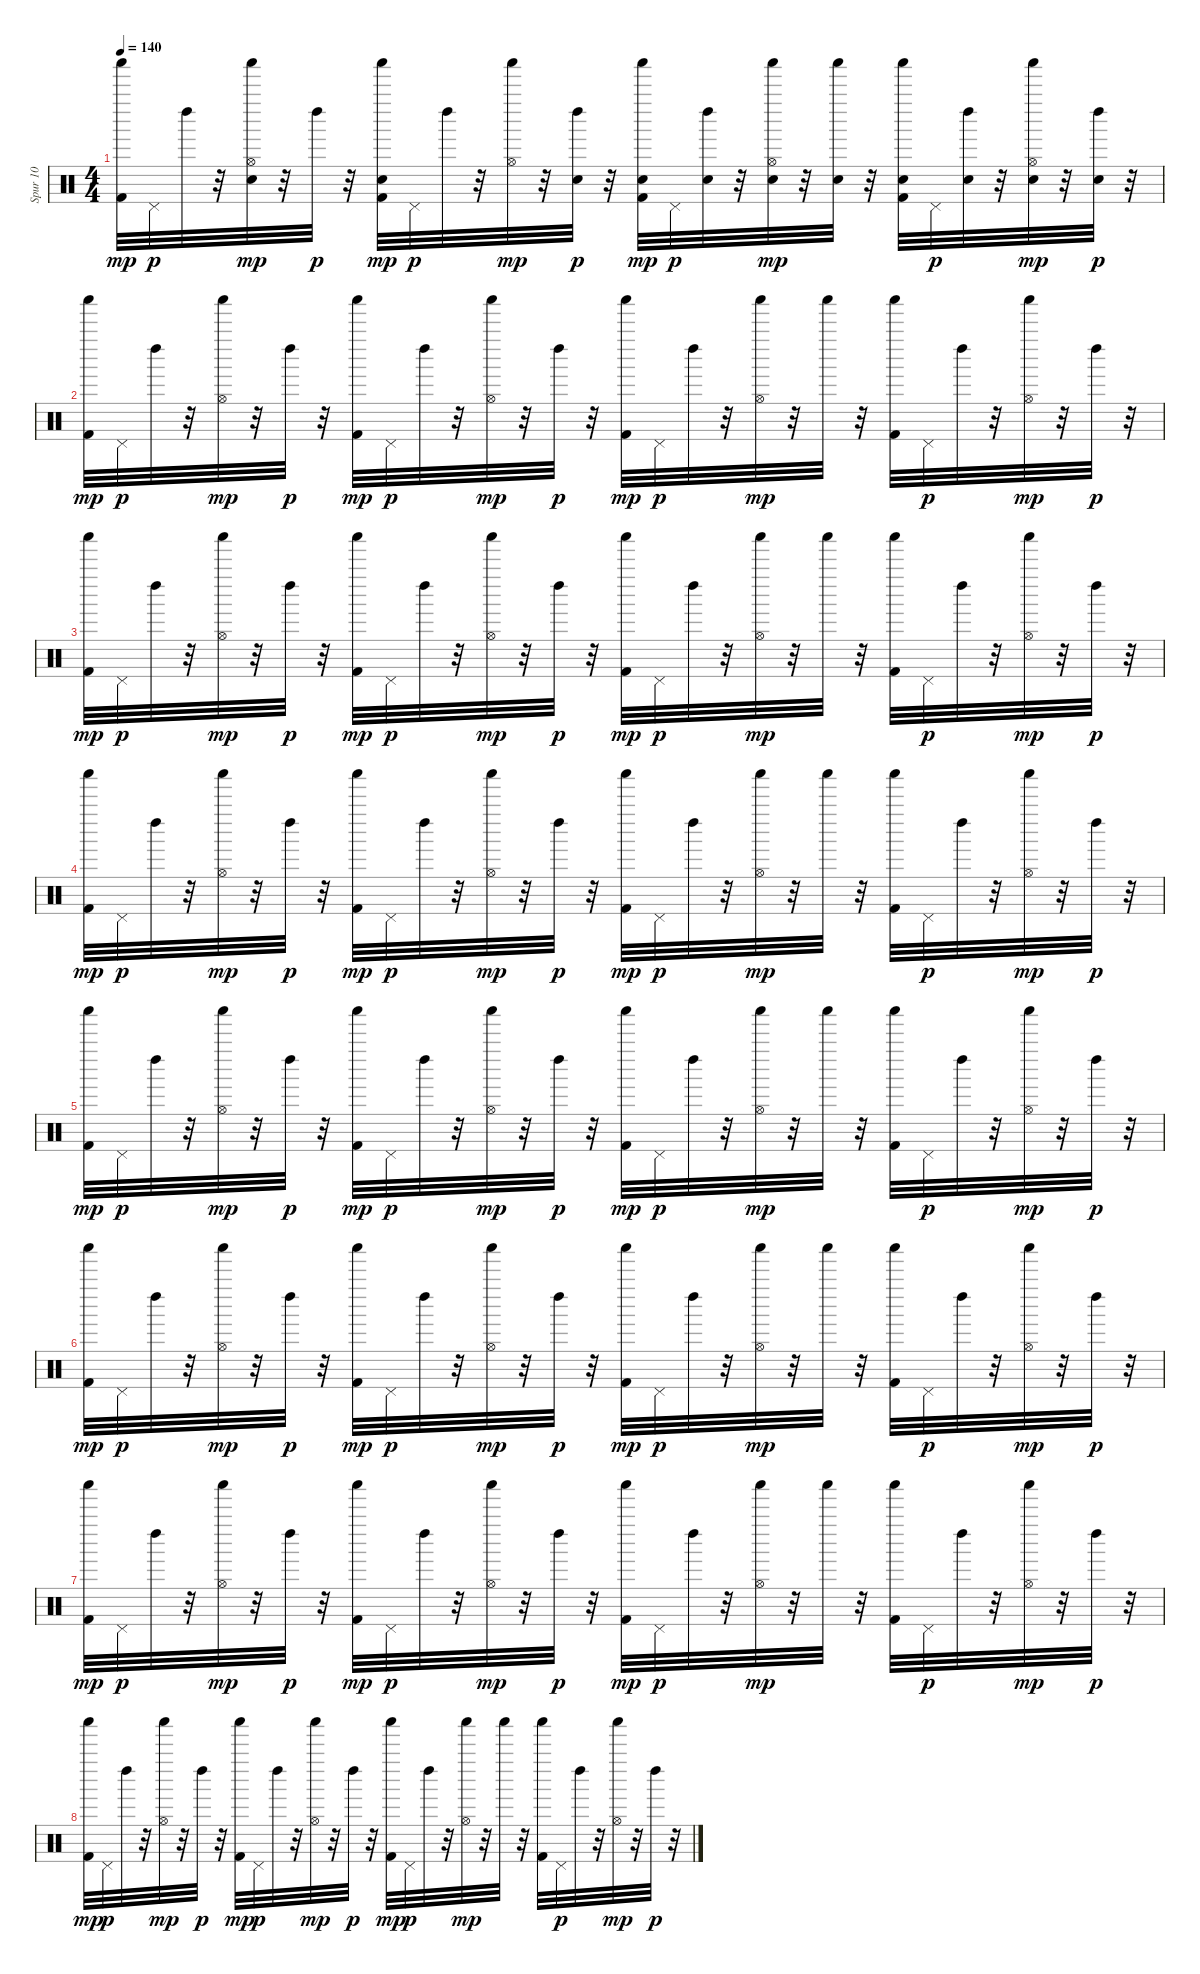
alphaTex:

\track ("Spur 10" "Spur 10") {instrument percussion}
\staff {score}
\articulation defaults
\ts (4 4)
\tempo 140
\clef neutral
\ks c
("Kick (hit) 2" "Shaker (hit)").32{dy mp} "Pedal Hi-Hat (hit)".32{dy p} "Left Maraca (hit)".32 r.32 ("Hand Clap (hit)" "Hi-Hat (open)" "Shaker (hit)").32{dy mp} r.32 "Left Maraca (hit)".32{dy p} r.32 ("Kick (hit) 2" "Hand Clap (hit)" "Shaker (hit)").32{dy mp} "Pedal Hi-Hat (hit)".32{dy p} "Left Maraca (hit)".32 r.32 ("Hi-Hat (open)" "Shaker (hit)").32{dy mp} r.32 ("Hand Clap (hit)" "Left Maraca (hit)").32{dy p} r.32 ("Kick (hit) 2" "Hand Clap (hit)" "Shaker (hit)").32{dy mp} "Pedal Hi-Hat (hit)".32{dy p} ("Hand Clap (hit)" "Left Maraca (hit)").32 r.32 ("Hand Clap (hit)" "Hi-Hat (open)" "Shaker (hit)").32{dy mp} r.32 ("Hand Clap (hit)" "Shaker (hit)").32 r.32 ("Kick (hit) 2" "Hand Clap (hit)" "Shaker (hit)").32 "Pedal Hi-Hat (hit)".32{dy p} ("Hand Clap (hit)" "Left Maraca (hit)").32 r.32 ("Hand Clap (hit)" "Hi-Hat (open)" "Shaker (hit)").32{dy mp} r.32 ("Hand Clap (hit)" "Left Maraca (hit)").32{dy p} r.32 |
("Kick (hit) 2" "Shaker (hit)").32{dy mp} "Pedal Hi-Hat (hit)".32{dy p} "Left Maraca (hit)".32 r.32 ("Hi-Hat (open)" "Shaker (hit)").32{dy mp} r.32 "Left Maraca (hit)".32{dy p} r.32 ("Kick (hit) 2" "Shaker (hit)").32{dy mp} "Pedal Hi-Hat (hit)".32{dy p} "Left Maraca (hit)".32 r.32 ("Hi-Hat (open)" "Shaker (hit)").32{dy mp} r.32 "Left Maraca (hit)".32{dy p} r.32 ("Kick (hit) 2" "Shaker (hit)").32{dy mp} "Pedal Hi-Hat (hit)".32{dy p} "Left Maraca (hit)".32 r.32 ("Hi-Hat (open)" "Shaker (hit)").32{dy mp} r.32 "Shaker (hit)".32 r.32 ("Kick (hit) 2" "Shaker (hit)").32 "Pedal Hi-Hat (hit)".32{dy p} "Left Maraca (hit)".32 r.32 ("Hi-Hat (open)" "Shaker (hit)").32{dy mp} r.32 "Left Maraca (hit)".32{dy p} r.32 |
("Kick (hit) 2" "Shaker (hit)").32{dy mp} "Pedal Hi-Hat (hit)".32{dy p} "Left Maraca (hit)".32 r.32 ("Hi-Hat (open)" "Shaker (hit)").32{dy mp} r.32 "Left Maraca (hit)".32{dy p} r.32 ("Kick (hit) 2" "Shaker (hit)").32{dy mp} "Pedal Hi-Hat (hit)".32{dy p} "Left Maraca (hit)".32 r.32 ("Hi-Hat (open)" "Shaker (hit)").32{dy mp} r.32 "Left Maraca (hit)".32{dy p} r.32 ("Kick (hit) 2" "Shaker (hit)").32{dy mp} "Pedal Hi-Hat (hit)".32{dy p} "Left Maraca (hit)".32 r.32 ("Hi-Hat (open)" "Shaker (hit)").32{dy mp} r.32 "Shaker (hit)".32 r.32 ("Kick (hit) 2" "Shaker (hit)").32 "Pedal Hi-Hat (hit)".32{dy p} "Left Maraca (hit)".32 r.32 ("Hi-Hat (open)" "Shaker (hit)").32{dy mp} r.32 "Left Maraca (hit)".32{dy p} r.32 |
("Kick (hit) 2" "Shaker (hit)").32{dy mp} "Pedal Hi-Hat (hit)".32{dy p} "Left Maraca (hit)".32 r.32 ("Hi-Hat (open)" "Shaker (hit)").32{dy mp} r.32 "Left Maraca (hit)".32{dy p} r.32 ("Kick (hit) 2" "Shaker (hit)").32{dy mp} "Pedal Hi-Hat (hit)".32{dy p} "Left Maraca (hit)".32 r.32 ("Hi-Hat (open)" "Shaker (hit)").32{dy mp} r.32 "Left Maraca (hit)".32{dy p} r.32 ("Kick (hit) 2" "Shaker (hit)").32{dy mp} "Pedal Hi-Hat (hit)".32{dy p} "Left Maraca (hit)".32 r.32 ("Hi-Hat (open)" "Shaker (hit)").32{dy mp} r.32 "Shaker (hit)".32 r.32 ("Kick (hit) 2" "Shaker (hit)").32 "Pedal Hi-Hat (hit)".32{dy p} "Left Maraca (hit)".32 r.32 ("Hi-Hat (open)" "Shaker (hit)").32{dy mp} r.32 "Left Maraca (hit)".32{dy p} r.32 |
("Kick (hit) 2" "Shaker (hit)").32{dy mp} "Pedal Hi-Hat (hit)".32{dy p} "Left Maraca (hit)".32 r.32 ("Hi-Hat (open)" "Shaker (hit)").32{dy mp} r.32 "Left Maraca (hit)".32{dy p} r.32 ("Kick (hit) 2" "Shaker (hit)").32{dy mp} "Pedal Hi-Hat (hit)".32{dy p} "Left Maraca (hit)".32 r.32 ("Hi-Hat (open)" "Shaker (hit)").32{dy mp} r.32 "Left Maraca (hit)".32{dy p} r.32 ("Kick (hit) 2" "Shaker (hit)").32{dy mp} "Pedal Hi-Hat (hit)".32{dy p} "Left Maraca (hit)".32 r.32 ("Hi-Hat (open)" "Shaker (hit)").32{dy mp} r.32 "Shaker (hit)".32 r.32 ("Kick (hit) 2" "Shaker (hit)").32 "Pedal Hi-Hat (hit)".32{dy p} "Left Maraca (hit)".32 r.32 ("Hi-Hat (open)" "Shaker (hit)").32{dy mp} r.32 "Left Maraca (hit)".32{dy p} r.32 |
("Kick (hit) 2" "Shaker (hit)").32{dy mp} "Pedal Hi-Hat (hit)".32{dy p} "Left Maraca (hit)".32 r.32 ("Hi-Hat (open)" "Shaker (hit)").32{dy mp} r.32 "Left Maraca (hit)".32{dy p} r.32 ("Kick (hit) 2" "Shaker (hit)").32{dy mp} "Pedal Hi-Hat (hit)".32{dy p} "Left Maraca (hit)".32 r.32 ("Hi-Hat (open)" "Shaker (hit)").32{dy mp} r.32 "Left Maraca (hit)".32{dy p} r.32 ("Kick (hit) 2" "Shaker (hit)").32{dy mp} "Pedal Hi-Hat (hit)".32{dy p} "Left Maraca (hit)".32 r.32 ("Hi-Hat (open)" "Shaker (hit)").32{dy mp} r.32 "Shaker (hit)".32 r.32 ("Kick (hit) 2" "Shaker (hit)").32 "Pedal Hi-Hat (hit)".32{dy p} "Left Maraca (hit)".32 r.32 ("Hi-Hat (open)" "Shaker (hit)").32{dy mp} r.32 "Left Maraca (hit)".32{dy p} r.32 |
("Kick (hit) 2" "Shaker (hit)").32{dy mp} "Pedal Hi-Hat (hit)".32{dy p} "Left Maraca (hit)".32 r.32 ("Hi-Hat (open)" "Shaker (hit)").32{dy mp} r.32 "Left Maraca (hit)".32{dy p} r.32 ("Kick (hit) 2" "Shaker (hit)").32{dy mp} "Pedal Hi-Hat (hit)".32{dy p} "Left Maraca (hit)".32 r.32 ("Hi-Hat (open)" "Shaker (hit)").32{dy mp} r.32 "Left Maraca (hit)".32{dy p} r.32 ("Kick (hit) 2" "Shaker (hit)").32{dy mp} "Pedal Hi-Hat (hit)".32{dy p} "Left Maraca (hit)".32 r.32 ("Hi-Hat (open)" "Shaker (hit)").32{dy mp} r.32 "Shaker (hit)".32 r.32 ("Kick (hit) 2" "Shaker (hit)").32 "Pedal Hi-Hat (hit)".32{dy p} "Left Maraca (hit)".32 r.32 ("Hi-Hat (open)" "Shaker (hit)").32{dy mp} r.32 "Left Maraca (hit)".32{dy p} r.32 |
("Kick (hit) 2" "Shaker (hit)").32{dy mp} "Pedal Hi-Hat (hit)".32{dy p} "Left Maraca (hit)".32 r.32 ("Hi-Hat (open)" "Shaker (hit)").32{dy mp} r.32 "Left Maraca (hit)".32{dy p} r.32 ("Kick (hit) 2" "Shaker (hit)").32{dy mp} "Pedal Hi-Hat (hit)".32{dy p} "Left Maraca (hit)".32 r.32 ("Hi-Hat (open)" "Shaker (hit)").32{dy mp} r.32 "Left Maraca (hit)".32{dy p} r.32 ("Kick (hit) 2" "Shaker (hit)").32{dy mp} "Pedal Hi-Hat (hit)".32{dy p} "Left Maraca (hit)".32 r.32 ("Hi-Hat (open)" "Shaker (hit)").32{dy mp} r.32 "Shaker (hit)".32 r.32 ("Kick (hit) 2" "Shaker (hit)").32 "Pedal Hi-Hat (hit)".32{dy p} "Left Maraca (hit)".32 r.32 ("Hi-Hat (open)" "Shaker (hit)").32{dy mp} r.32 "Left Maraca (hit)".32{dy p} r.32
